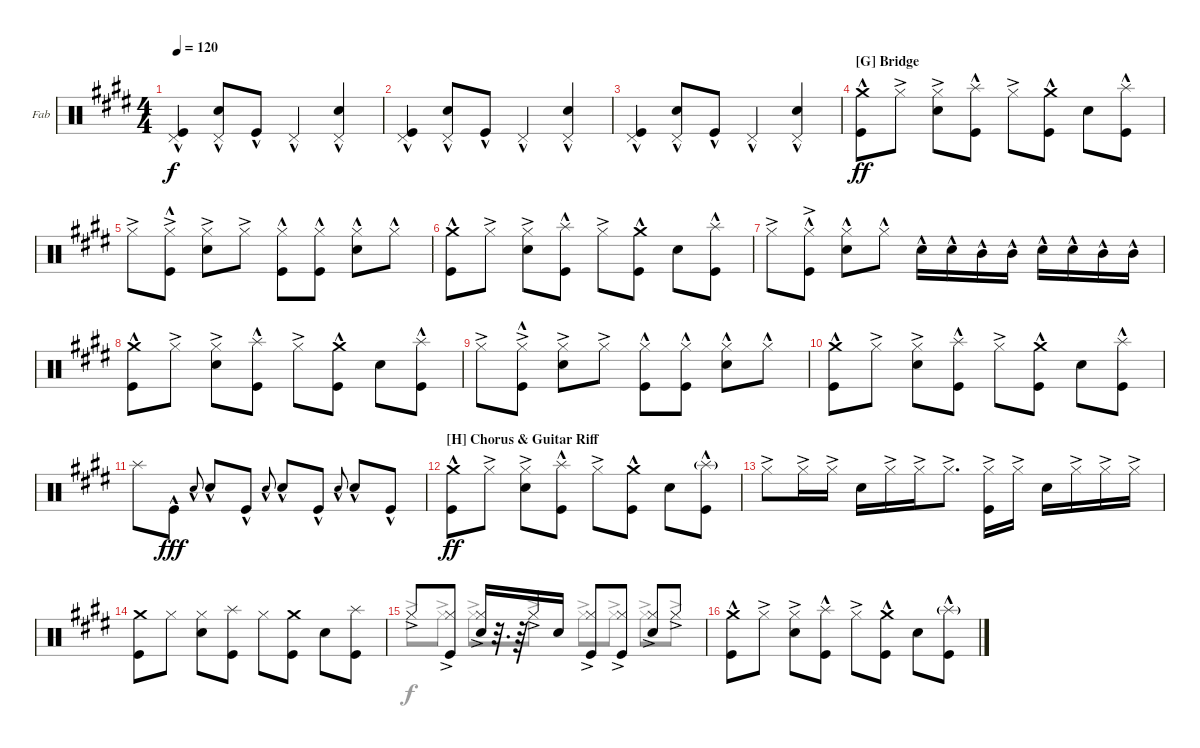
\bracketExtendMode groupsimilarinstruments
\firstSystemTrackNameOrientation horizontal
\otherSystemsTrackNameOrientation horizontal
\track ("Drums" "Fab") {instrument percussion}
\staff {score}
\articulation defaults
\voice
\ts (4 4)
\tempo 120
\clef neutral
\scale
0.548776
\ks e
("Pedal Hi-Hat (hit)"{hac} "Kick (hit)"{hac}).4{dy f} ("Snare (hit) 2" "Pedal Hi-Hat (hit)"{hac}).8 "Kick (hit)"{hac}.8 "Pedal Hi-Hat (hit)"{hac}.4 ("Snare (hit) 2" "Pedal Hi-Hat (hit)"{hac}).4 |
\scale
0.451159 ("Pedal Hi-Hat (hit)"{hac} "Kick (hit)"{hac}).4 ("Snare (hit) 2" "Pedal Hi-Hat (hit)"{hac}).8 "Kick (hit)"{hac}.8 "Pedal Hi-Hat (hit)"{hac}.4 ("Snare (hit) 2" "Pedal Hi-Hat (hit)"{hac}).4 |
\scale
0.547368 ("Pedal Hi-Hat (hit)"{hac} "Kick (hit)"{hac}).4 ("Snare (hit) 2" "Pedal Hi-Hat (hit)"{hac}).8 "Kick (hit)"{hac}.8 "Pedal Hi-Hat (hit)"{hac}.4 ("Snare (hit) 2" "Pedal Hi-Hat (hit)"{hac}).4 |
\section ("G" "Bridge")
\scale
0.452656 ("Crash medium (hit)" "Kick (hit)"{hac}).8{dy ff} "Hi-Hat (closed)"{ac}.8 ("Snare (hit) 2" "Hi-Hat (closed)"{ac}).8 ("Kick (hit)"{hac} "Splash (hit)").8 "Hi-Hat (closed)"{ac}.8 ("Crash medium (hit)" "Kick (hit)"{hac}).8 "Snare (hit) 2".8 ("Kick (hit)"{hac} "Splash (hit)").8 |
\scale
0.544994 "Hi-Hat (closed)"{ac}.8 ("Hi-Hat (closed)"{ac} "Kick (hit)"{hac}).8 ("Hi-Hat (closed)"{ac} "Snare (hit) 2").8 "Hi-Hat (closed)"{ac}.8 ("Hi-Hat (closed)"{hac} "Kick (hit)"{hac}).8 ("Hi-Hat (closed)"{hac} "Kick (hit)"{hac}).8 ("Hi-Hat (closed)"{hac} "Snare (hit) 2").8 "Hi-Hat (closed)"{hac}.8 |
\scale
0.454921 ("Crash medium (hit)" "Kick (hit)"{hac}).8 "Hi-Hat (closed)"{ac}.8 ("Snare (hit) 2" "Hi-Hat (closed)"{ac}).8 ("Kick (hit)"{hac} "Splash (hit)").8 "Hi-Hat (closed)"{ac}.8 ("Crash medium (hit)" "Kick (hit)"{hac}).8 "Snare (hit) 2".8 ("Kick (hit)"{hac} "Splash (hit)").8 |
\scale
0.546541 "Hi-Hat (closed)"{ac}.8 ("Kick (hit)"{hac} "Hi-Hat (closed)"{ac}).8 ("Snare (hit) 2" "Hi-Hat (closed)"{hac}).8 "Hi-Hat (closed)"{hac}.8 "Snare (hit) 2"{hac}.16 "Snare (hit) 2"{hac}.16 "Mid Tom (hit)"{hac}.16 "Mid Tom (hit)"{hac}.16 "Snare (hit) 2"{hac}.16 "Snare (hit) 2"{hac}.16 "Mid Tom (hit)"{hac}.16 "Mid Tom (hit)"{hac}.16 |
\scale
0.453106 ("Crash medium (hit)" "Kick (hit)"{hac}).8 "Hi-Hat (closed)"{ac}.8 ("Snare (hit) 2" "Hi-Hat (closed)"{ac}).8 ("Kick (hit)"{hac} "Splash (hit)").8 "Hi-Hat (closed)"{ac}.8 ("Crash medium (hit)" "Kick (hit)"{hac}).8 "Snare (hit) 2".8 ("Kick (hit)"{hac} "Splash (hit)").8 |
\scale
0.547761 "Hi-Hat (closed)"{ac}.8 ("Hi-Hat (closed)"{ac} "Kick (hit)"{hac}).8 ("Hi-Hat (closed)"{ac} "Snare (hit) 2").8 "Hi-Hat (closed)"{ac}.8 ("Hi-Hat (closed)"{hac} "Kick (hit)"{hac}).8 ("Hi-Hat (closed)"{hac} "Kick (hit)"{hac}).8 ("Hi-Hat (closed)"{hac} "Snare (hit) 2").8 "Hi-Hat (closed)"{hac}.8 |
\scale
0.452164 ("Crash medium (hit)" "Kick (hit)"{hac}).8 "Hi-Hat (closed)"{ac}.8 ("Snare (hit) 2" "Hi-Hat (closed)"{ac}).8 ("Kick (hit)"{hac} "Splash (hit)").8 "Hi-Hat (closed)"{ac}.8 ("Crash medium (hit)" "Kick (hit)"{hac}).8 "Snare (hit) 2".8 ("Kick (hit)"{hac} "Splash (hit)").8 |
\scale
0.55586 "Splash (hit)".8 "Kick (hit)"{hac}.8{dy fff} "Snare (hit) 2"{hac}.8{gr onbeat} "Snare (hit) 2"{hac}.8 "Kick (hit)"{hac}.8 "Snare (hit) 2"{hac}.8{gr onbeat} "Snare (hit) 2"{hac}.8 "Kick (hit)"{hac}.8 "Snare (hit) 2"{hac}.8{gr onbeat} "Snare (hit) 2"{hac}.8 "Kick (hit)"{hac}.8 |
\section ("H" "Chorus & Guitar Riff")
\scale
0.444031 ("Kick (hit)"{hac} "Crash medium (hit)").8{dy ff} "Hi-Hat (closed)"{ac}.8 ("Hi-Hat (closed)"{ac} "Snare (hit) 2").8 ("Kick (hit)"{hac} "Splash (hit)").8 "Hi-Hat (closed)"{ac}.8 ("Kick (hit)"{hac} "Crash medium (hit)").8 "Snare (hit) 2".8 ("Kick (hit)"{hac} "Splash (hit)"{g}).8 |
\scale
0.553057 "Hi-Hat (closed)"{ac}.8 "Hi-Hat (closed)"{ac}.16 "Hi-Hat (closed)"{ac}.16 "Snare (hit) 2".16 "Hi-Hat (closed)"{ac}.16 "Hi-Hat (closed)"{ac}.16 "Hi-Hat (closed)"{ac}.8{d} ("Hi-Hat (closed)"{ac} "Kick (hit)").16 "Hi-Hat (closed)"{ac}.16 "Snare (hit) 2".16 "Hi-Hat (closed)"{ac}.16 "Hi-Hat (closed)"{ac}.16 "Hi-Hat (closed)"{ac}.16 |
\scale
0.446727 ("Crash medium (hit)" "Kick (hit)").8 "Hi-Hat (closed)".8 ("Hi-Hat (closed)" "Snare (hit) 2").8 ("Kick (hit)" "Splash (hit)").8 "Hi-Hat (closed)".8 ("Kick (hit)" "Crash medium (hit)").8 "Snare (hit) 2".8 ("Kick (hit)" "Splash (hit)").8 |
\scale
0.55297 "Hi-Hat (closed)"{ac}.8 ("Kick (hit)" "Hi-Hat (closed)"{ac}).8 ("Snare (hit) 2" "Hi-Hat (closed)"{ac}).16 r.32{d} r.64 "Hi-Hat (closed)"{ac}.16 "Snare (hit) 2".16 ("Kick (hit)" "Hi-Hat (closed)"{ac}).8 ("Kick (hit)" "Hi-Hat (closed)"{ac}).8 ("Snare (hit) 2" "Hi-Hat (closed)"{ac}).8 "Hi-Hat (closed)"{ac}.8 |
\scale
0.445437 ("Kick (hit)"{hac} "Crash medium (hit)").8 "Hi-Hat (closed)"{ac}.8 ("Hi-Hat (closed)"{ac} "Snare (hit) 2").8 ("Kick (hit)"{hac} "Splash (hit)").8 "Hi-Hat (closed)"{ac}.8 ("Kick (hit)"{hac} "Crash medium (hit)").8 "Snare (hit) 2".8 ("Kick (hit)"{hac} "Splash (hit)"{g}).8
\voice
\clef neutral
\ottava regular
\simile none
\scale
0.548776
\ks e
|
\scale
0.451159 |
\scale
0.547368 |
\scale
0.452656 |
\scale
0.544994 |
\scale
0.454921 |
\scale
0.546541 |
\scale
0.453106 |
\scale
0.547761 |
\scale
0.452164 |
\scale
0.55586 |
\scale
0.444031 |
\scale
0.553057 |
\scale
0.446727 |
\scale
0.55297 "Hi-Hat (closed)"{ac}.8{dy f} "Hi-Hat (closed)"{ac}.8 "Hi-Hat (closed)"{ac}.8 "Hi-Hat (closed)"{ac}.8 "Hi-Hat (closed)"{ac}.8 "Hi-Hat (closed)"{ac}.8 "Hi-Hat (closed)"{ac}.8 "Hi-Hat (closed)"{ac}.8 |
\scale
0.445437
